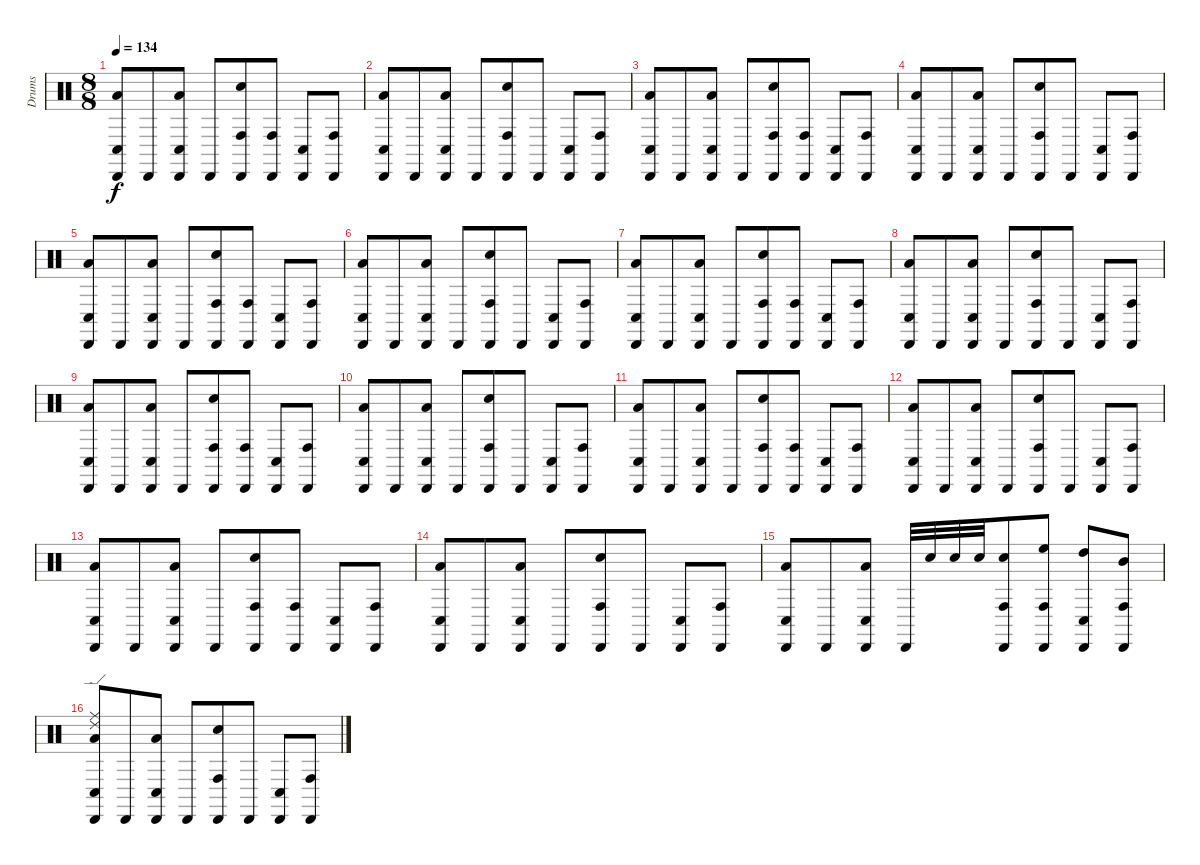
\track ("Drums" "Drums") {instrument percussion}
\staff {score}
\articulation defaults
\ts (8 8)
\tempo 134
\clef neutral
\ks c
("Cabasa (hit)" "Low Tom (hit)" "Conga low (hit)").8{dy f} "Cabasa (hit)".8 ("Cabasa (hit)" "Low Tom (hit)" "Conga low (hit)").8 "Cabasa (hit)".8 ("Electric Snare (hit)" "Cabasa (hit)" "Conga high (hit)").8 ("Conga high (hit)" "Cabasa (hit)").8 ("Cabasa (hit)" "Conga low (hit)").8 ("Cabasa (hit)" "Conga high (hit)").8 |
("Cabasa (hit)" "Low Tom (hit)" "Conga low (hit)").8 "Cabasa (hit)".8 ("Cabasa (hit)" "Low Tom (hit)" "Conga low (hit)").8 "Cabasa (hit)".8 ("Electric Snare (hit)" "Cabasa (hit)" "Conga high (hit)").8 "Cabasa (hit)".8 ("Cabasa (hit)" "Conga low (hit)").8 ("Cabasa (hit)" "Conga high (hit)").8 |
("Cabasa (hit)" "Low Tom (hit)" "Conga low (hit)").8 "Cabasa (hit)".8 ("Cabasa (hit)" "Low Tom (hit)" "Conga low (hit)").8 "Cabasa (hit)".8 ("Electric Snare (hit)" "Cabasa (hit)" "Conga high (hit)").8 ("Conga high (hit)" "Cabasa (hit)").8 ("Cabasa (hit)" "Conga low (hit)").8 ("Cabasa (hit)" "Conga high (hit)").8 |
("Cabasa (hit)" "Low Tom (hit)" "Conga low (hit)").8 "Cabasa (hit)".8 ("Cabasa (hit)" "Low Tom (hit)" "Conga low (hit)").8 "Cabasa (hit)".8 ("Electric Snare (hit)" "Cabasa (hit)" "Conga high (hit)").8 "Cabasa (hit)".8 ("Cabasa (hit)" "Conga low (hit)").8 ("Cabasa (hit)" "Conga high (hit)").8 |
("Cabasa (hit)" "Low Tom (hit)" "Conga low (hit)").8 "Cabasa (hit)".8 ("Cabasa (hit)" "Low Tom (hit)" "Conga low (hit)").8 "Cabasa (hit)".8 ("Electric Snare (hit)" "Cabasa (hit)" "Conga high (hit)").8 ("Conga high (hit)" "Cabasa (hit)").8 ("Cabasa (hit)" "Conga low (hit)").8 ("Cabasa (hit)" "Conga high (hit)").8 |
("Cabasa (hit)" "Low Tom (hit)" "Conga low (hit)").8 "Cabasa (hit)".8 ("Cabasa (hit)" "Low Tom (hit)" "Conga low (hit)").8 "Cabasa (hit)".8 ("Electric Snare (hit)" "Cabasa (hit)" "Conga high (hit)").8 "Cabasa (hit)".8 ("Cabasa (hit)" "Conga low (hit)").8 ("Cabasa (hit)" "Conga high (hit)").8 |
("Cabasa (hit)" "Low Tom (hit)" "Conga low (hit)").8 "Cabasa (hit)".8 ("Cabasa (hit)" "Low Tom (hit)" "Conga low (hit)").8 "Cabasa (hit)".8 ("Electric Snare (hit)" "Cabasa (hit)" "Conga high (hit)").8 ("Conga high (hit)" "Cabasa (hit)").8 ("Cabasa (hit)" "Conga low (hit)").8 ("Cabasa (hit)" "Conga high (hit)").8 |
("Cabasa (hit)" "Low Tom (hit)" "Conga low (hit)").8 "Cabasa (hit)".8 ("Cabasa (hit)" "Low Tom (hit)" "Conga low (hit)").8 "Cabasa (hit)".8 ("Electric Snare (hit)" "Cabasa (hit)" "Conga high (hit)").8 "Cabasa (hit)".8 ("Cabasa (hit)" "Conga low (hit)").8 ("Cabasa (hit)" "Conga high (hit)").8 |
("Cabasa (hit)" "Low Tom (hit)" "Conga low (hit)").8 "Cabasa (hit)".8 ("Cabasa (hit)" "Low Tom (hit)" "Conga low (hit)").8 "Cabasa (hit)".8 ("Electric Snare (hit)" "Cabasa (hit)" "Conga high (hit)").8 ("Conga high (hit)" "Cabasa (hit)").8 ("Cabasa (hit)" "Conga low (hit)").8 ("Cabasa (hit)" "Conga high (hit)").8 |
("Cabasa (hit)" "Low Tom (hit)" "Conga low (hit)").8 "Cabasa (hit)".8 ("Cabasa (hit)" "Low Tom (hit)" "Conga low (hit)").8 "Cabasa (hit)".8 ("Electric Snare (hit)" "Cabasa (hit)" "Conga high (hit)").8 "Cabasa (hit)".8 ("Cabasa (hit)" "Conga low (hit)").8 ("Cabasa (hit)" "Conga high (hit)").8 |
("Cabasa (hit)" "Low Tom (hit)" "Conga low (hit)").8 "Cabasa (hit)".8 ("Cabasa (hit)" "Low Tom (hit)" "Conga low (hit)").8 "Cabasa (hit)".8 ("Electric Snare (hit)" "Cabasa (hit)" "Conga high (hit)").8 ("Conga high (hit)" "Cabasa (hit)").8 ("Cabasa (hit)" "Conga low (hit)").8 ("Cabasa (hit)" "Conga high (hit)").8 |
("Cabasa (hit)" "Low Tom (hit)" "Conga low (hit)").8 "Cabasa (hit)".8 ("Cabasa (hit)" "Low Tom (hit)" "Conga low (hit)").8 "Cabasa (hit)".8 ("Electric Snare (hit)" "Cabasa (hit)" "Conga high (hit)").8 "Cabasa (hit)".8 ("Cabasa (hit)" "Conga low (hit)").8 ("Cabasa (hit)" "Conga high (hit)").8 |
("Cabasa (hit)" "Low Tom (hit)" "Conga low (hit)").8 "Cabasa (hit)".8 ("Cabasa (hit)" "Low Tom (hit)" "Conga low (hit)").8 "Cabasa (hit)".8 ("Electric Snare (hit)" "Cabasa (hit)" "Conga high (hit)").8 ("Conga high (hit)" "Cabasa (hit)").8 ("Cabasa (hit)" "Conga low (hit)").8 ("Cabasa (hit)" "Conga high (hit)").8 |
("Cabasa (hit)" "Low Tom (hit)" "Conga low (hit)").8 "Cabasa (hit)".8 ("Cabasa (hit)" "Low Tom (hit)" "Conga low (hit)").8 "Cabasa (hit)".8 ("Electric Snare (hit)" "Cabasa (hit)" "Conga high (hit)").8 "Cabasa (hit)".8 ("Cabasa (hit)" "Conga low (hit)").8 ("Cabasa (hit)" "Conga high (hit)").8 |
("Cabasa (hit)" "Low Tom (hit)" "Conga low (hit)").8 "Cabasa (hit)".8 ("Cabasa (hit)" "Low Tom (hit)" "Conga low (hit)").8 "Cabasa (hit)".32 "Electric Snare (hit)".32 "Electric Snare (hit)".32 "Electric Snare (hit)".32 ("Electric Snare (hit)" "Cabasa (hit)" "Conga high (hit)").8 ("Cabasa (hit)" "High Floor Tom (hit)" "Conga high (hit)").8 ("Cabasa (hit)" "High Tom (hit)" "Conga low (hit)").8 ("Cabasa (hit)" "Mid Tom (hit)" "Conga high (hit)").8 |
("Ride (edge) 2" "Ride (middle)" "Cabasa (hit)" "Low Tom (hit)" "Conga low (hit)").8 "Cabasa (hit)".8 ("Cabasa (hit)" "Low Tom (hit)" "Conga low (hit)").8 "Cabasa (hit)".8 ("Electric Snare (hit)" "Cabasa (hit)" "Conga high (hit)").8 "Cabasa (hit)".8 ("Cabasa (hit)" "Conga low (hit)").8 ("Cabasa (hit)" "Conga high (hit)").8
